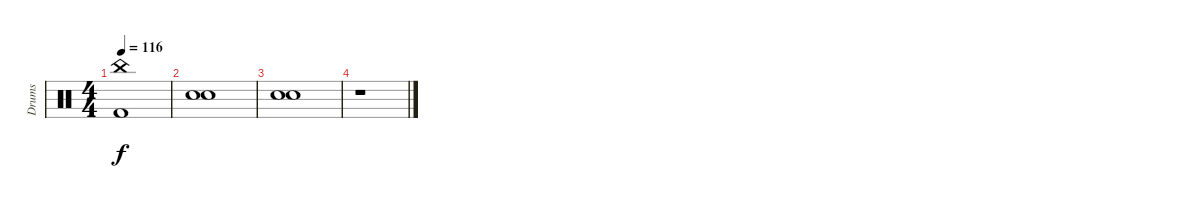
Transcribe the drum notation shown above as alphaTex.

\track ("Drums" "Drums") {instrument percussion}
\staff {score}
\articulation defaults
\ts (4 4)
\tempo 116
\clef neutral
\ks c
("China (hit)" "Kick (hit) 2").1{dy f} |
("Snare (hit)" "Snare (hit)").1 |
("Snare (hit)" "Snare (hit)").1 |
r.1
